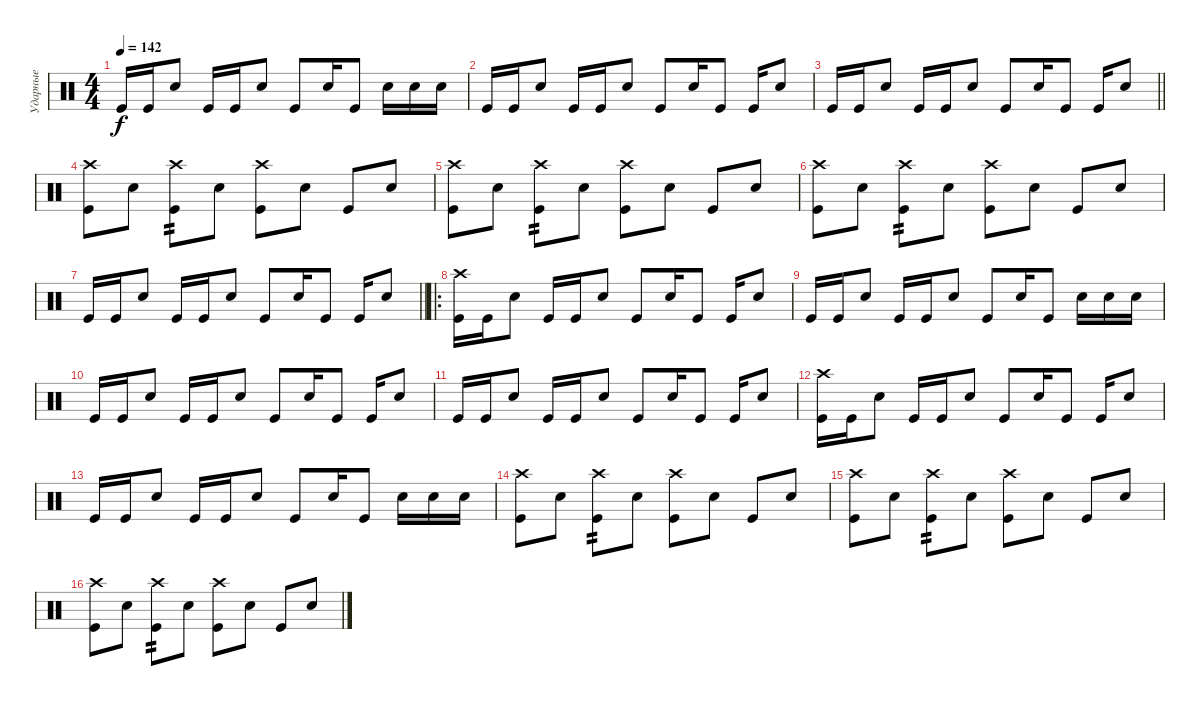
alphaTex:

\track ("Ударные" "Ударные") {instrument percussion}
\staff {score}
\articulation defaults
\ts (4 4)
\tempo 142
\clef neutral
\ks c "Kick (hit)".16{dy f} "Kick (hit)".16 "Electric Snare (hit)".8 "Kick (hit)".16 "Kick (hit)".16 "Electric Snare (hit)".8 "Kick (hit)".8 "Electric Snare (hit)".16 "Kick (hit)".8 "Electric Snare (hit)".16 "Electric Snare (hit)".16 "Electric Snare (hit)".16
|
"Kick (hit)".16 "Kick (hit)".16 "Electric Snare (hit)".8 "Kick (hit)".16 "Kick (hit)".16 "Electric Snare (hit)".8 "Kick (hit)".8 "Electric Snare (hit)".16 "Kick (hit)".8 "Kick (hit)".16 "Electric Snare (hit)".8 |
\barLineRight lightlight "Kick (hit)".16 "Kick (hit)".16 "Electric Snare (hit)".8 "Kick (hit)".16 "Kick (hit)".16 "Electric Snare (hit)".8 "Kick (hit)".8 "Electric Snare (hit)".16 "Kick (hit)".8 "Kick (hit)".16 "Electric Snare (hit)".8
|
("Crash high (hit)" "Kick (hit)").8 "Electric Snare (hit)".8 ("Crash high (hit)" "Kick (hit)").8{tp 2} "Electric Snare (hit)".8 ("Crash high (hit)" "Kick (hit)").8 "Electric Snare (hit)".8 "Kick (hit)".8 "Electric Snare (hit)".8 |
("Crash high (hit)" "Kick (hit)").8 "Electric Snare (hit)".8 ("Crash high (hit)" "Kick (hit)").8{tp 2} "Electric Snare (hit)".8 ("Crash high (hit)" "Kick (hit)").8 "Electric Snare (hit)".8 "Kick (hit)".8 "Electric Snare (hit)".8 |
("Crash high (hit)" "Kick (hit)").8 "Electric Snare (hit)".8 ("Crash high (hit)" "Kick (hit)").8{tp 2} "Electric Snare (hit)".8 ("Crash high (hit)" "Kick (hit)").8 "Electric Snare (hit)".8 "Kick (hit)".8 "Electric Snare (hit)".8 |
\barLineRight lightlight "Kick (hit)".16 "Kick (hit)".16 "Electric Snare (hit)".8 "Kick (hit)".16 "Kick (hit)".16 "Electric Snare (hit)".8 "Kick (hit)".8 "Electric Snare (hit)".16 "Kick (hit)".8 "Kick (hit)".16 "Electric Snare (hit)".8
|
\ro
("Crash high (hit)" "Kick (hit)").16 "Kick (hit)".16 "Electric Snare (hit)".8 "Kick (hit)".16 "Kick (hit)".16 "Electric Snare (hit)".8 "Kick (hit)".8 "Electric Snare (hit)".16 "Kick (hit)".8 "Kick (hit)".16 "Electric Snare (hit)".8 |
"Kick (hit)".16 "Kick (hit)".16 "Electric Snare (hit)".8 "Kick (hit)".16 "Kick (hit)".16 "Electric Snare (hit)".8 "Kick (hit)".8 "Electric Snare (hit)".16 "Kick (hit)".8 "Electric Snare (hit)".16 "Electric Snare (hit)".16 "Electric Snare (hit)".16 |
"Kick (hit)".16 "Kick (hit)".16 "Electric Snare (hit)".8 "Kick (hit)".16 "Kick (hit)".16 "Electric Snare (hit)".8 "Kick (hit)".8 "Electric Snare (hit)".16 "Kick (hit)".8 "Kick (hit)".16 "Electric Snare (hit)".8 |
"Kick (hit)".16 "Kick (hit)".16 "Electric Snare (hit)".8 "Kick (hit)".16 "Kick (hit)".16 "Electric Snare (hit)".8 "Kick (hit)".8 "Electric Snare (hit)".16 "Kick (hit)".8 "Kick (hit)".16 "Electric Snare (hit)".8 |
("Crash high (hit)" "Kick (hit)").16 "Kick (hit)".16 "Electric Snare (hit)".8 "Kick (hit)".16 "Kick (hit)".16 "Electric Snare (hit)".8 "Kick (hit)".8 "Electric Snare (hit)".16 "Kick (hit)".8 "Kick (hit)".16 "Electric Snare (hit)".8 |
"Kick (hit)".16 "Kick (hit)".16 "Electric Snare (hit)".8 "Kick (hit)".16 "Kick (hit)".16 "Electric Snare (hit)".8 "Kick (hit)".8 "Electric Snare (hit)".16 "Kick (hit)".8 "Electric Snare (hit)".16 "Electric Snare (hit)".16 "Electric Snare (hit)".16 |
("Crash high (hit)" "Kick (hit)").8 "Electric Snare (hit)".8 ("Crash high (hit)" "Kick (hit)").8{tp 2} "Electric Snare (hit)".8 ("Crash high (hit)" "Kick (hit)").8 "Electric Snare (hit)".8 "Kick (hit)".8 "Electric Snare (hit)".8 |
("Crash high (hit)" "Kick (hit)").8 "Electric Snare (hit)".8 ("Crash high (hit)" "Kick (hit)").8{tp 2} "Electric Snare (hit)".8 ("Crash high (hit)" "Kick (hit)").8 "Electric Snare (hit)".8 "Kick (hit)".8 "Electric Snare (hit)".8 |
("Crash high (hit)" "Kick (hit)").8 "Electric Snare (hit)".8 ("Crash high (hit)" "Kick (hit)").8{tp 2} "Electric Snare (hit)".8 ("Crash high (hit)" "Kick (hit)").8 "Electric Snare (hit)".8 "Kick (hit)".8 "Electric Snare (hit)".8
